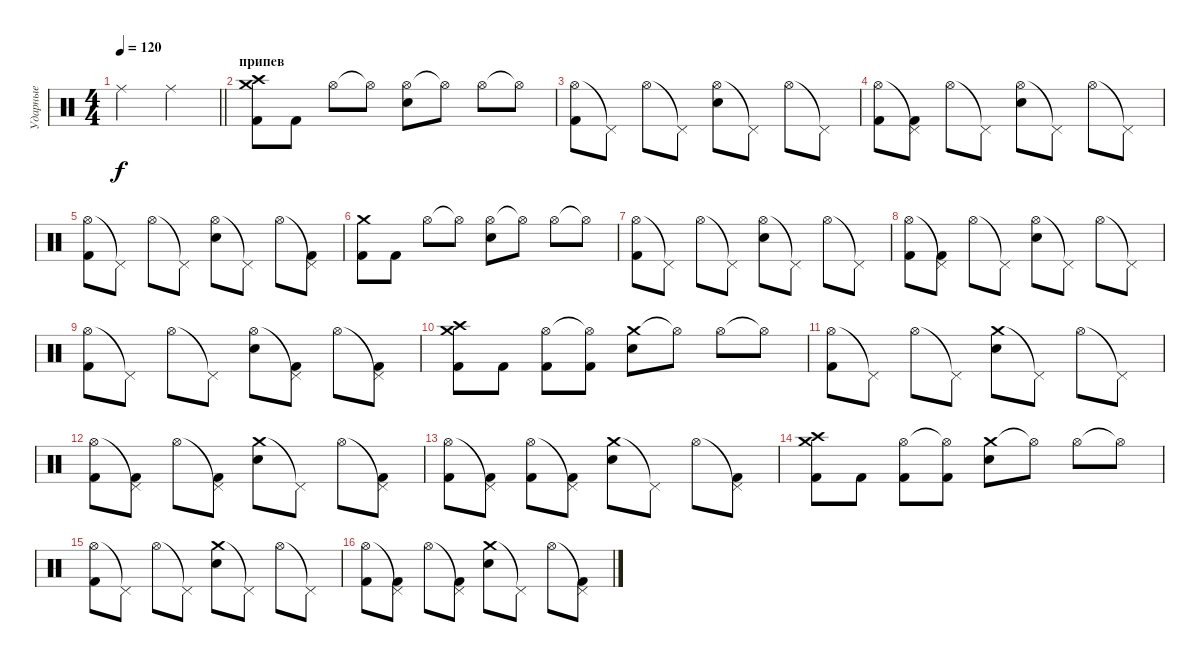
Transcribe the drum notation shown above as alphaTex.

\track ("Ударные" "Ударные") {instrument percussion}
\staff {score}
\articulation defaults
\ts (4 4)
\tempo 120
\clef neutral
\barLineRight lightlight
\ks c "Ride (middle)".2{dy f} "Ride (middle)".2
|
\section ("" "припев")
("Crash medium (hit)" "Crash high (hit)" "Kick (hit) 2").8 "Kick (hit) 2".8 "Hi-Hat (open)".8 "Hi-Hat (open)"{t}.8 ("Hi-Hat (open)" "Snare (hit) 2").8 "Hi-Hat (open)"{t}.8 "Hi-Hat (open)".8 "Hi-Hat (open)"{t}.8 |
("Hi-Hat (open)" "Kick (hit) 2").8 "Pedal Hi-Hat (hit)"{t}.8 "Hi-Hat (open)".8 "Pedal Hi-Hat (hit)"{t}.8 ("Hi-Hat (open)" "Snare (hit) 2").8 "Pedal Hi-Hat (hit)"{t}.8 "Hi-Hat (open)".8 "Pedal Hi-Hat (hit)"{t}.8 |
("Hi-Hat (open)" "Kick (hit) 2").8 ("Pedal Hi-Hat (hit)"{t} "Kick (hit) 2").8 "Hi-Hat (open)".8 "Pedal Hi-Hat (hit)"{t}.8 ("Hi-Hat (open)" "Snare (hit) 2").8 "Pedal Hi-Hat (hit)"{t}.8 "Hi-Hat (open)".8 "Pedal Hi-Hat (hit)"{t}.8 |
("Hi-Hat (open)" "Kick (hit) 2").8 "Pedal Hi-Hat (hit)"{t}.8 "Hi-Hat (open)".8 "Pedal Hi-Hat (hit)"{t}.8 ("Hi-Hat (open)" "Snare (hit) 2").8 "Pedal Hi-Hat (hit)"{t}.8 "Hi-Hat (open)".8 ("Pedal Hi-Hat (hit)"{t} "Kick (hit) 2").8 |
("Crash medium (hit)" "Kick (hit) 2").8 "Kick (hit) 2".8 "Hi-Hat (open)".8 "Hi-Hat (open)"{t}.8 ("Hi-Hat (open)" "Snare (hit) 2").8 "Hi-Hat (open)"{t}.8 "Hi-Hat (open)".8 "Hi-Hat (open)"{t}.8 |
("Hi-Hat (open)" "Kick (hit) 2").8 "Pedal Hi-Hat (hit)"{t}.8 "Hi-Hat (open)".8 "Pedal Hi-Hat (hit)"{t}.8 ("Hi-Hat (open)" "Snare (hit) 2").8 "Pedal Hi-Hat (hit)"{t}.8 "Hi-Hat (open)".8 "Pedal Hi-Hat (hit)"{t}.8 |
("Hi-Hat (open)" "Kick (hit) 2").8 ("Pedal Hi-Hat (hit)"{t} "Kick (hit) 2").8 "Hi-Hat (open)".8 "Pedal Hi-Hat (hit)"{t}.8 ("Hi-Hat (open)" "Snare (hit) 2").8 "Pedal Hi-Hat (hit)"{t}.8 "Hi-Hat (open)".8 "Pedal Hi-Hat (hit)"{t}.8 |
("Hi-Hat (open)" "Kick (hit) 2").8 "Pedal Hi-Hat (hit)"{t}.8 "Hi-Hat (open)".8 "Pedal Hi-Hat (hit)"{t}.8 ("Hi-Hat (open)" "Snare (hit) 2").8 ("Pedal Hi-Hat (hit)"{t} "Kick (hit) 2").8 "Hi-Hat (open)".8 ("Pedal Hi-Hat (hit)"{t} "Kick (hit) 2").8 |
("Crash medium (hit)" "Crash high (hit)" "Kick (hit) 2").8 "Kick (hit) 2".8 ("Hi-Hat (open)" "Kick (hit) 2").8 ("Hi-Hat (open)"{t} "Kick (hit) 2").8 ("Crash medium (hit)" "Snare (hit) 2").8 "Hi-Hat (open)"{t}.8 "Hi-Hat (open)".8 "Hi-Hat (open)"{t}.8 |
("Hi-Hat (open)" "Kick (hit) 2").8 "Pedal Hi-Hat (hit)"{t}.8 "Hi-Hat (open)".8 "Pedal Hi-Hat (hit)"{t}.8 ("Crash medium (hit)" "Snare (hit) 2").8 "Pedal Hi-Hat (hit)"{t}.8 "Hi-Hat (open)".8 "Pedal Hi-Hat (hit)"{t}.8 |
("Hi-Hat (open)" "Kick (hit) 2").8 ("Pedal Hi-Hat (hit)"{t} "Kick (hit) 2").8 "Hi-Hat (open)".8 ("Pedal Hi-Hat (hit)"{t} "Kick (hit) 2").8 ("Crash medium (hit)" "Snare (hit) 2").8 "Pedal Hi-Hat (hit)"{t}.8 "Hi-Hat (open)".8 ("Pedal Hi-Hat (hit)"{t} "Kick (hit) 2").8 |
("Hi-Hat (open)" "Kick (hit) 2").8 ("Pedal Hi-Hat (hit)"{t} "Kick (hit) 2").8 ("Hi-Hat (open)" "Kick (hit) 2").8 ("Pedal Hi-Hat (hit)"{t} "Kick (hit) 2").8 ("Crash medium (hit)" "Snare (hit) 2").8 "Pedal Hi-Hat (hit)"{t}.8 "Hi-Hat (open)".8 ("Pedal Hi-Hat (hit)"{t} "Kick (hit) 2").8 |
("Crash medium (hit)" "Crash high (hit)" "Kick (hit) 2").8 "Kick (hit) 2".8 ("Hi-Hat (open)" "Kick (hit) 2").8 ("Hi-Hat (open)"{t} "Kick (hit) 2").8 ("Crash medium (hit)" "Snare (hit) 2").8 "Hi-Hat (open)"{t}.8 "Hi-Hat (open)".8 "Hi-Hat (open)"{t}.8 |
("Hi-Hat (open)" "Kick (hit) 2").8 "Pedal Hi-Hat (hit)"{t}.8 "Hi-Hat (open)".8 "Pedal Hi-Hat (hit)"{t}.8 ("Crash medium (hit)" "Snare (hit) 2").8 "Pedal Hi-Hat (hit)"{t}.8 "Hi-Hat (open)".8 "Pedal Hi-Hat (hit)"{t}.8 |
("Hi-Hat (open)" "Kick (hit) 2").8 ("Pedal Hi-Hat (hit)"{t} "Kick (hit) 2").8 "Hi-Hat (open)".8 ("Pedal Hi-Hat (hit)"{t} "Kick (hit) 2").8 ("Crash medium (hit)" "Snare (hit) 2").8 "Pedal Hi-Hat (hit)"{t}.8 "Hi-Hat (open)".8 ("Pedal Hi-Hat (hit)"{t} "Kick (hit) 2").8
